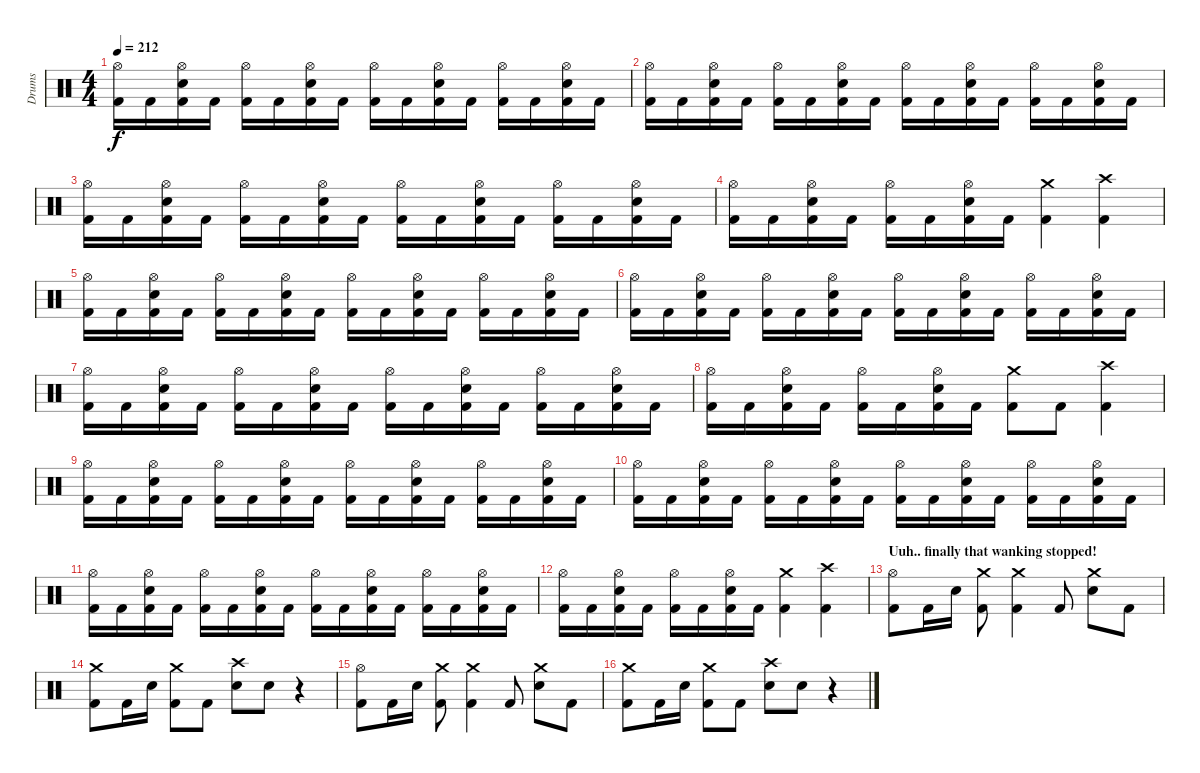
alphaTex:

\track ("Drums" "Drums") {instrument percussion}
\staff {score}
\articulation defaults
\ts (4 4)
\tempo 212
\clef neutral
\ks c
("Hi-Hat (open)" "Kick (hit) 2").16{dy f} "Kick (hit) 2".16 ("Electric Snare (hit)" "Hi-Hat (open)" "Kick (hit) 2").16 "Kick (hit) 2".16 ("Hi-Hat (open)" "Kick (hit) 2").16 "Kick (hit) 2".16 ("Electric Snare (hit)" "Hi-Hat (open)" "Kick (hit) 2").16 "Kick (hit) 2".16 ("Hi-Hat (open)" "Kick (hit) 2").16 "Kick (hit) 2".16 ("Electric Snare (hit)" "Hi-Hat (open)" "Kick (hit) 2").16 "Kick (hit) 2".16 ("Hi-Hat (open)" "Kick (hit) 2").16 "Kick (hit) 2".16 ("Electric Snare (hit)" "Hi-Hat (open)" "Kick (hit) 2").16 "Kick (hit) 2".16 |
("Hi-Hat (open)" "Kick (hit) 2").16 "Kick (hit) 2".16 ("Electric Snare (hit)" "Hi-Hat (open)" "Kick (hit) 2").16 "Kick (hit) 2".16 ("Hi-Hat (open)" "Kick (hit) 2").16 "Kick (hit) 2".16 ("Electric Snare (hit)" "Hi-Hat (open)" "Kick (hit) 2").16 "Kick (hit) 2".16 ("Hi-Hat (open)" "Kick (hit) 2").16 "Kick (hit) 2".16 ("Electric Snare (hit)" "Hi-Hat (open)" "Kick (hit) 2").16 "Kick (hit) 2".16 ("Hi-Hat (open)" "Kick (hit) 2").16 "Kick (hit) 2".16 ("Electric Snare (hit)" "Hi-Hat (open)" "Kick (hit) 2").16 "Kick (hit) 2".16 |
("Hi-Hat (open)" "Kick (hit) 2").16 "Kick (hit) 2".16 ("Electric Snare (hit)" "Hi-Hat (open)" "Kick (hit) 2").16 "Kick (hit) 2".16 ("Hi-Hat (open)" "Kick (hit) 2").16 "Kick (hit) 2".16 ("Electric Snare (hit)" "Hi-Hat (open)" "Kick (hit) 2").16 "Kick (hit) 2".16 ("Hi-Hat (open)" "Kick (hit) 2").16 "Kick (hit) 2".16 ("Electric Snare (hit)" "Hi-Hat (open)" "Kick (hit) 2").16 "Kick (hit) 2".16 ("Hi-Hat (open)" "Kick (hit) 2").16 "Kick (hit) 2".16 ("Electric Snare (hit)" "Hi-Hat (open)" "Kick (hit) 2").16 "Kick (hit) 2".16 |
("Hi-Hat (open)" "Kick (hit) 2").16 "Kick (hit) 2".16 ("Electric Snare (hit)" "Hi-Hat (open)" "Kick (hit) 2").16 "Kick (hit) 2".16 ("Hi-Hat (open)" "Kick (hit) 2").16 "Kick (hit) 2".16 ("Electric Snare (hit)" "Hi-Hat (open)" "Kick (hit) 2").16 "Kick (hit) 2".16 ("Crash medium (hit)" "Kick (hit) 2").4 ("Crash high (hit)" "Kick (hit) 2").4 |
("Hi-Hat (open)" "Kick (hit) 2").16 "Kick (hit) 2".16 ("Electric Snare (hit)" "Hi-Hat (open)" "Kick (hit) 2").16 "Kick (hit) 2".16 ("Hi-Hat (open)" "Kick (hit) 2").16 "Kick (hit) 2".16 ("Electric Snare (hit)" "Hi-Hat (open)" "Kick (hit) 2").16 "Kick (hit) 2".16 ("Hi-Hat (open)" "Kick (hit) 2").16 "Kick (hit) 2".16 ("Electric Snare (hit)" "Hi-Hat (open)" "Kick (hit) 2").16 "Kick (hit) 2".16 ("Hi-Hat (open)" "Kick (hit) 2").16 "Kick (hit) 2".16 ("Electric Snare (hit)" "Hi-Hat (open)" "Kick (hit) 2").16 "Kick (hit) 2".16 |
("Hi-Hat (open)" "Kick (hit) 2").16 "Kick (hit) 2".16 ("Electric Snare (hit)" "Hi-Hat (open)" "Kick (hit) 2").16 "Kick (hit) 2".16 ("Hi-Hat (open)" "Kick (hit) 2").16 "Kick (hit) 2".16 ("Electric Snare (hit)" "Hi-Hat (open)" "Kick (hit) 2").16 "Kick (hit) 2".16 ("Hi-Hat (open)" "Kick (hit) 2").16 "Kick (hit) 2".16 ("Electric Snare (hit)" "Hi-Hat (open)" "Kick (hit) 2").16 "Kick (hit) 2".16 ("Hi-Hat (open)" "Kick (hit) 2").16 "Kick (hit) 2".16 ("Electric Snare (hit)" "Hi-Hat (open)" "Kick (hit) 2").16 "Kick (hit) 2".16 |
("Hi-Hat (open)" "Kick (hit) 2").16 "Kick (hit) 2".16 ("Electric Snare (hit)" "Hi-Hat (open)" "Kick (hit) 2").16 "Kick (hit) 2".16 ("Hi-Hat (open)" "Kick (hit) 2").16 "Kick (hit) 2".16 ("Electric Snare (hit)" "Hi-Hat (open)" "Kick (hit) 2").16 "Kick (hit) 2".16 ("Hi-Hat (open)" "Kick (hit) 2").16 "Kick (hit) 2".16 ("Electric Snare (hit)" "Hi-Hat (open)" "Kick (hit) 2").16 "Kick (hit) 2".16 ("Hi-Hat (open)" "Kick (hit) 2").16 "Kick (hit) 2".16 ("Electric Snare (hit)" "Hi-Hat (open)" "Kick (hit) 2").16 "Kick (hit) 2".16 |
("Hi-Hat (open)" "Kick (hit) 2").16 "Kick (hit) 2".16 ("Electric Snare (hit)" "Hi-Hat (open)" "Kick (hit) 2").16 "Kick (hit) 2".16 ("Hi-Hat (open)" "Kick (hit) 2").16 "Kick (hit) 2".16 ("Electric Snare (hit)" "Hi-Hat (open)" "Kick (hit) 2").16 "Kick (hit) 2".16 ("Crash medium (hit)" "Kick (hit) 2").8 "Kick (hit) 2".8 ("Crash high (hit)" "Kick (hit) 2").4 |
("Hi-Hat (open)" "Kick (hit) 2").16 "Kick (hit) 2".16 ("Electric Snare (hit)" "Hi-Hat (open)" "Kick (hit) 2").16 "Kick (hit) 2".16 ("Hi-Hat (open)" "Kick (hit) 2").16 "Kick (hit) 2".16 ("Electric Snare (hit)" "Hi-Hat (open)" "Kick (hit) 2").16 "Kick (hit) 2".16 ("Hi-Hat (open)" "Kick (hit) 2").16 "Kick (hit) 2".16 ("Electric Snare (hit)" "Hi-Hat (open)" "Kick (hit) 2").16 "Kick (hit) 2".16 ("Hi-Hat (open)" "Kick (hit) 2").16 "Kick (hit) 2".16 ("Electric Snare (hit)" "Hi-Hat (open)" "Kick (hit) 2").16 "Kick (hit) 2".16 |
("Hi-Hat (open)" "Kick (hit) 2").16 "Kick (hit) 2".16 ("Electric Snare (hit)" "Hi-Hat (open)" "Kick (hit) 2").16 "Kick (hit) 2".16 ("Hi-Hat (open)" "Kick (hit) 2").16 "Kick (hit) 2".16 ("Electric Snare (hit)" "Hi-Hat (open)" "Kick (hit) 2").16 "Kick (hit) 2".16 ("Hi-Hat (open)" "Kick (hit) 2").16 "Kick (hit) 2".16 ("Electric Snare (hit)" "Hi-Hat (open)" "Kick (hit) 2").16 "Kick (hit) 2".16 ("Hi-Hat (open)" "Kick (hit) 2").16 "Kick (hit) 2".16 ("Electric Snare (hit)" "Hi-Hat (open)" "Kick (hit) 2").16 "Kick (hit) 2".16 |
("Hi-Hat (open)" "Kick (hit) 2").16 "Kick (hit) 2".16 ("Electric Snare (hit)" "Hi-Hat (open)" "Kick (hit) 2").16 "Kick (hit) 2".16 ("Hi-Hat (open)" "Kick (hit) 2").16 "Kick (hit) 2".16 ("Electric Snare (hit)" "Hi-Hat (open)" "Kick (hit) 2").16 "Kick (hit) 2".16 ("Hi-Hat (open)" "Kick (hit) 2").16 "Kick (hit) 2".16 ("Electric Snare (hit)" "Hi-Hat (open)" "Kick (hit) 2").16 "Kick (hit) 2".16 ("Hi-Hat (open)" "Kick (hit) 2").16 "Kick (hit) 2".16 ("Electric Snare (hit)" "Hi-Hat (open)" "Kick (hit) 2").16 "Kick (hit) 2".16 |
("Hi-Hat (open)" "Kick (hit) 2").16 "Kick (hit) 2".16 ("Electric Snare (hit)" "Hi-Hat (open)" "Kick (hit) 2").16 "Kick (hit) 2".16 ("Hi-Hat (open)" "Kick (hit) 2").16 "Kick (hit) 2".16 ("Electric Snare (hit)" "Hi-Hat (open)" "Kick (hit) 2").16 "Kick (hit) 2".16 ("Crash medium (hit)" "Kick (hit) 2").4 ("Crash high (hit)" "Kick (hit) 2").4 |
\section ("" "Uuh.. finally that wanking stopped!")
("Hi-Hat (open)" "Kick (hit) 2").8 "Kick (hit) 2".16 "Electric Snare (hit)".16 ("Crash medium (hit)" "Kick (hit) 2").8 ("Crash medium (hit)" "Kick (hit) 2").4 "Kick (hit) 2".8 ("Crash medium (hit)" "Electric Snare (hit)").8 "Kick (hit) 2".8 |
("Crash medium (hit)" "Kick (hit) 2").8 "Kick (hit) 2".16 "Electric Snare (hit)".16 ("Crash medium (hit)" "Kick (hit) 2").8 "Kick (hit) 2".8 ("Crash high (hit)" "Electric Snare (hit)").8 "Electric Snare (hit)".8 r.4 |
("Hi-Hat (open)" "Kick (hit) 2").8 "Kick (hit) 2".16 "Electric Snare (hit)".16 ("Crash medium (hit)" "Kick (hit) 2").8 ("Crash medium (hit)" "Kick (hit) 2").4 "Kick (hit) 2".8 ("Crash medium (hit)" "Electric Snare (hit)").8 "Kick (hit) 2".8 |
("Crash medium (hit)" "Kick (hit) 2").8 "Kick (hit) 2".16 "Electric Snare (hit)".16 ("Crash medium (hit)" "Kick (hit) 2").8 "Kick (hit) 2".8 ("Crash high (hit)" "Electric Snare (hit)").8 "Electric Snare (hit)".8 r.4
